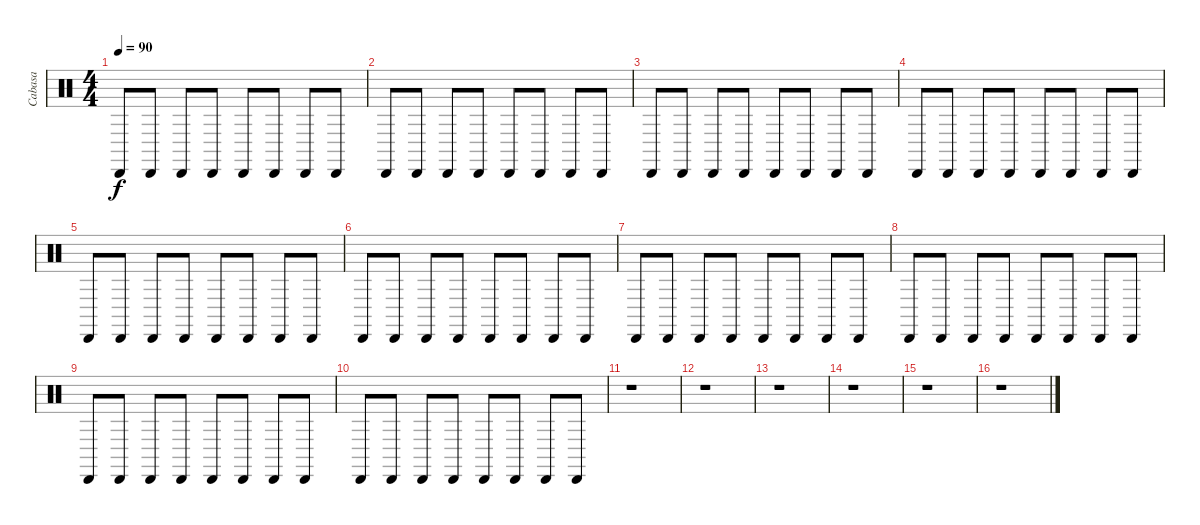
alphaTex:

\track ("Cabasa" "Cabasa") {instrument percussion}
\staff {score}
\articulation defaults
\ts (4 4)
\tempo 90
\clef neutral
\ks c "Cabasa (hit)".8{dy f} "Cabasa (hit)".8 "Cabasa (hit)".8 "Cabasa (hit)".8 "Cabasa (hit)".8 "Cabasa (hit)".8 "Cabasa (hit)".8 "Cabasa (hit)".8
|
"Cabasa (hit)".8 "Cabasa (hit)".8 "Cabasa (hit)".8 "Cabasa (hit)".8 "Cabasa (hit)".8 "Cabasa (hit)".8 "Cabasa (hit)".8 "Cabasa (hit)".8 |
"Cabasa (hit)".8 "Cabasa (hit)".8 "Cabasa (hit)".8 "Cabasa (hit)".8 "Cabasa (hit)".8 "Cabasa (hit)".8 "Cabasa (hit)".8 "Cabasa (hit)".8 |
"Cabasa (hit)".8 "Cabasa (hit)".8 "Cabasa (hit)".8 "Cabasa (hit)".8 "Cabasa (hit)".8 "Cabasa (hit)".8 "Cabasa (hit)".8 "Cabasa (hit)".8 |
"Cabasa (hit)".8 "Cabasa (hit)".8 "Cabasa (hit)".8 "Cabasa (hit)".8 "Cabasa (hit)".8 "Cabasa (hit)".8 "Cabasa (hit)".8 "Cabasa (hit)".8 |
"Cabasa (hit)".8 "Cabasa (hit)".8 "Cabasa (hit)".8 "Cabasa (hit)".8 "Cabasa (hit)".8 "Cabasa (hit)".8 "Cabasa (hit)".8 "Cabasa (hit)".8 |
"Cabasa (hit)".8 "Cabasa (hit)".8 "Cabasa (hit)".8 "Cabasa (hit)".8 "Cabasa (hit)".8 "Cabasa (hit)".8 "Cabasa (hit)".8 "Cabasa (hit)".8 |
"Cabasa (hit)".8 "Cabasa (hit)".8 "Cabasa (hit)".8 "Cabasa (hit)".8 "Cabasa (hit)".8 "Cabasa (hit)".8 "Cabasa (hit)".8 "Cabasa (hit)".8 |
"Cabasa (hit)".8 "Cabasa (hit)".8 "Cabasa (hit)".8 "Cabasa (hit)".8 "Cabasa (hit)".8 "Cabasa (hit)".8 "Cabasa (hit)".8 "Cabasa (hit)".8 |
"Cabasa (hit)".8 "Cabasa (hit)".8 "Cabasa (hit)".8 "Cabasa (hit)".8 "Cabasa (hit)".8 "Cabasa (hit)".8 "Cabasa (hit)".8 "Cabasa (hit)".8 |
r.1 |
r.1 |
r.1 |
r.1 |
r.1 |
r.1
